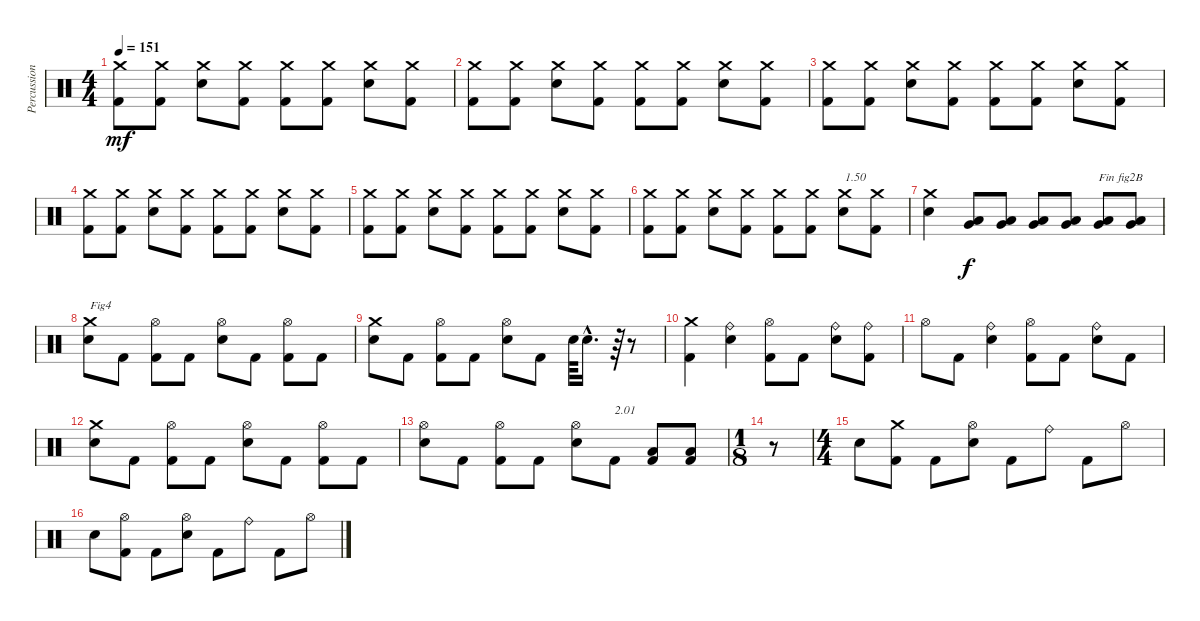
\track ("Percussions" "Percussion") {instrument percussion}
\staff {score}
\articulation defaults
\ts (4 4)
\tempo 151
\clef neutral
\ks c
("Kick (hit) 2" "Crash medium (hit)").8{dy mf} ("Kick (hit) 2" "Crash medium (hit)").8 ("Electric Snare (hit)" "Crash medium (hit)").8 ("Kick (hit) 2" "Crash medium (hit)").8 ("Kick (hit) 2" "Crash medium (hit)").8 ("Kick (hit) 2" "Crash medium (hit)").8 ("Electric Snare (hit)" "Crash medium (hit)").8 ("Kick (hit) 2" "Crash medium (hit)").8 |
("Kick (hit) 2" "Crash medium (hit)").8 ("Kick (hit) 2" "Crash medium (hit)").8 ("Electric Snare (hit)" "Crash medium (hit)").8 ("Kick (hit) 2" "Crash medium (hit)").8 ("Kick (hit) 2" "Crash medium (hit)").8 ("Kick (hit) 2" "Crash medium (hit)").8 ("Electric Snare (hit)" "Crash medium (hit)").8 ("Kick (hit) 2" "Crash medium (hit)").8 |
("Kick (hit) 2" "Crash medium (hit)").8 ("Kick (hit) 2" "Crash medium (hit)").8 ("Electric Snare (hit)" "Crash medium (hit)").8 ("Kick (hit) 2" "Crash medium (hit)").8 ("Kick (hit) 2" "Crash medium (hit)").8 ("Kick (hit) 2" "Crash medium (hit)").8 ("Electric Snare (hit)" "Crash medium (hit)").8 ("Kick (hit) 2" "Crash medium (hit)").8 |
("Kick (hit) 2" "Crash medium (hit)").8 ("Kick (hit) 2" "Crash medium (hit)").8 ("Electric Snare (hit)" "Crash medium (hit)").8 ("Kick (hit) 2" "Crash medium (hit)").8 ("Kick (hit) 2" "Crash medium (hit)").8 ("Kick (hit) 2" "Crash medium (hit)").8 ("Electric Snare (hit)" "Crash medium (hit)").8 ("Kick (hit) 2" "Crash medium (hit)").8 |
("Kick (hit) 2" "Crash medium (hit)").8 ("Kick (hit) 2" "Crash medium (hit)").8 ("Electric Snare (hit)" "Crash medium (hit)").8 ("Kick (hit) 2" "Crash medium (hit)").8 ("Kick (hit) 2" "Crash medium (hit)").8 ("Kick (hit) 2" "Crash medium (hit)").8 ("Electric Snare (hit)" "Crash medium (hit)").8 ("Kick (hit) 2" "Crash medium (hit)").8 |
("Kick (hit) 2" "Crash medium (hit)").8 ("Kick (hit) 2" "Crash medium (hit)").8 ("Electric Snare (hit)" "Crash medium (hit)").8 ("Kick (hit) 2" "Crash medium (hit)").8 ("Kick (hit) 2" "Crash medium (hit)").8 ("Kick (hit) 2" "Crash medium (hit)").8 ("Electric Snare (hit)" "Crash medium (hit)").8{txt "1.50"} ("Kick (hit) 2" "Crash medium (hit)").8 |
("Electric Snare (hit)" "Crash medium (hit)").4 ("Very Low Tom (hit)" "Low Floor Tom (hit)").8{dy f} ("Very Low Tom (hit)" "Low Floor Tom (hit)").8 ("Very Low Tom (hit)" "Low Floor Tom (hit)").8 ("Very Low Tom (hit)" "Low Floor Tom (hit)").8 ("Very Low Tom (hit)" "Low Floor Tom (hit)").8{txt "Fin fig2B"} ("Very Low Tom (hit)" "Low Floor Tom (hit)").8 |
("Electric Snare (hit)" "Crash medium (hit)").8{txt "Fig4 "} "Kick (hit) 2".8 ("Kick (hit) 2" "Hi-Hat (open)").8 "Kick (hit) 2".8 ("Electric Snare (hit)" "Hi-Hat (open)").8 "Kick (hit) 2".8 ("Kick (hit) 2" "Hi-Hat (open)").8 "Kick (hit) 2".8 |
("Electric Snare (hit)" "Crash medium (hit)").8 "Kick (hit) 2".8 ("Kick (hit) 2" "Hi-Hat (open)").8 "Kick (hit) 2".8 ("Electric Snare (hit)" "Hi-Hat (open)").8 "Kick (hit) 2".8 "Electric Snare (hit)".64 "Electric Snare (hit)"{hac}.16{d} r.64 r.8 |
("Kick (hit) 2" "Crash medium (hit)").4 ("Electric Snare (hit)" "Ride (bell)").4 ("Kick (hit) 2" "Hi-Hat (open)").8 "Kick (hit) 2".8 ("Electric Snare (hit)" "Ride (bell)").8 ("Kick (hit) 2" "Ride (bell)").8 |
"Hi-Hat (open)".8 "Kick (hit) 2".8 ("Electric Snare (hit)" "Ride (bell)").4 ("Kick (hit) 2" "Hi-Hat (open)").8 "Kick (hit) 2".8 ("Electric Snare (hit)" "Ride (bell)").8 "Kick (hit) 2".8 |
("Electric Snare (hit)" "Crash medium (hit)").8 "Kick (hit) 2".8 ("Kick (hit) 2" "Hi-Hat (open)").8 "Kick (hit) 2".8 ("Electric Snare (hit)" "Hi-Hat (open)").8 "Kick (hit) 2".8 ("Kick (hit) 2" "Hi-Hat (open)").8 "Kick (hit) 2".8 |
("Electric Snare (hit)" "Hi-Hat (open)").8 "Kick (hit) 2".8 ("Kick (hit) 2" "Hi-Hat (open)").8 "Kick (hit) 2".8 ("Electric Snare (hit)" "Hi-Hat (open)").8 "Kick (hit) 2".8{txt "2.01"} ("Kick (hit) 2" "Low Floor Tom (hit)").8 ("Kick (hit) 2" "Low Floor Tom (hit)").8 |
\ts (1 8)
r.8 |
\ts (4 4)
"Electric Snare (hit)".8 ("Kick (hit) 2" "Crash medium (hit)").8 "Kick (hit) 2".8 ("Electric Snare (hit)" "Hi-Hat (open)").8 "Kick (hit) 2".8 "Ride (bell)".8 "Kick (hit) 2".8 "Hi-Hat (open)".8 |
"Electric Snare (hit)".8 ("Kick (hit) 2" "Hi-Hat (open)").8 "Kick (hit) 2".8 ("Electric Snare (hit)" "Hi-Hat (open)").8 "Kick (hit) 2".8 "Ride (bell)".8 "Kick (hit) 2".8 "Hi-Hat (open)".8
